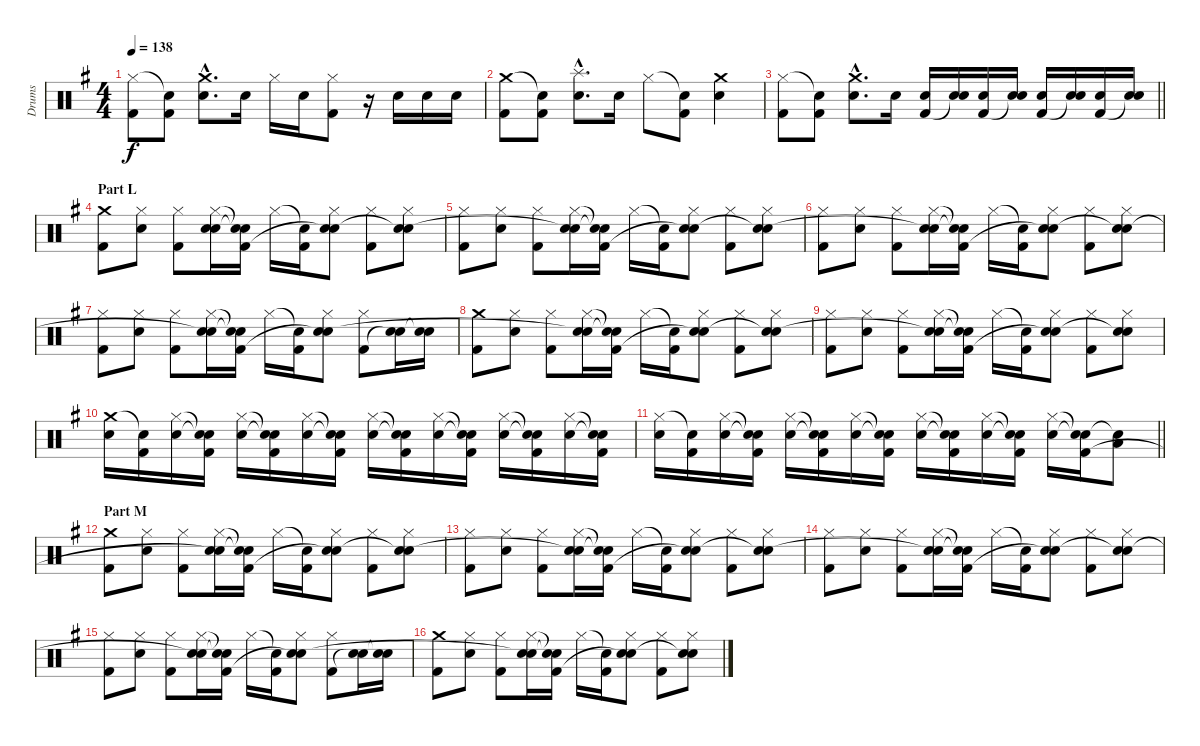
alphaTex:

\track ("Drums" "Drums") {instrument percussion}
\staff {score}
\articulation defaults
\ts (4 4)
\tempo 138
\clef neutral
\ks g
("Hi-Hat (closed)" "Kick (hit) 2").8{dy f} ("Snare (hit)"{t} "Kick (hit) 2").8 ("Crash medium (hit)"{hac} "Electric Snare (hit)"{hac}).8{d} "Electric Snare (hit)".16 "Hi-Hat (closed)".16 "Electric Snare (hit)".16 ("Hi-Hat (closed)" "Kick (hit) 2").8 r.16 "Electric Snare (hit)".16 "Electric Snare (hit)".16 "Electric Snare (hit)".16 |
("Crash medium (hit)" "Kick (hit) 2").8 ("Snare (hit)"{t} "Kick (hit) 2").8 ("Splash (hit)"{hac} "Electric Snare (hit)"{hac}).8{d} "Electric Snare (hit)".16 "Hi-Hat (closed)".8 ("Snare (hit)"{t} "Kick (hit) 2").8 ("Crash medium (hit)" "Electric Snare (hit)").4 |
\barLineRight lightlight
("Hi-Hat (closed)" "Kick (hit) 2").8 ("Snare (hit)"{t} "Kick (hit) 2").8 ("Crash medium (hit)"{hac} "Electric Snare (hit)"{hac}).8{d} "Electric Snare (hit)".16 ("Electric Snare (hit)" "Kick (hit) 2").16 ("Electric Snare (hit)" "Snare (hit)"{t}).16 ("Electric Snare (hit)" "Kick (hit) 2").16 ("Electric Snare (hit)" "Snare (hit)"{t}).16 ("Electric Snare (hit)" "Kick (hit) 2").16 ("Electric Snare (hit)" "Snare (hit)"{t}).16 ("Electric Snare (hit)" "Kick (hit) 2").16 ("Electric Snare (hit)" "Snare (hit)"{t}).16 |
\section ("" "Part L")
("Crash medium (hit)" "Kick (hit) 2").8 ("Hi-Hat (closed)" "Electric Snare (hit)").8 ("Hi-Hat (closed)" "Kick (hit) 2").8 ("Hi-Hat (closed)" "Electric Snare (hit)" "Snare (hit)").16 ("Snare (hit)"{t} "Snare (hit)"{t} "Kick (hit) 2").16 "Hi-Hat (closed)".16 ("Snare (hit)"{t} "Kick (hit) 2").16 ("Hi-Hat (closed)" "Electric Snare (hit)" "Snare (hit)"{t}).8 ("Hi-Hat (closed)" "Kick (hit) 2").8 ("Hi-Hat (closed)" "Electric Snare (hit)" "Snare (hit)"{t}).8 |
("Hi-Hat (closed)" "Kick (hit) 2").8 ("Hi-Hat (closed)" "Electric Snare (hit)").8 ("Hi-Hat (closed)" "Kick (hit) 2").8 ("Hi-Hat (closed)" "Electric Snare (hit)" "Snare (hit)"{t}).16 ("Snare (hit)"{t} "Snare (hit)"{t} "Kick (hit) 2").16 "Hi-Hat (closed)".16 ("Snare (hit)"{t} "Kick (hit) 2").16 ("Hi-Hat (closed)" "Electric Snare (hit)" "Snare (hit)"{t}).8 ("Hi-Hat (closed)" "Kick (hit) 2").8 ("Hi-Hat (closed)" "Electric Snare (hit)" "Snare (hit)"{t}).8 |
("Hi-Hat (closed)" "Kick (hit) 2").8 ("Hi-Hat (closed)" "Electric Snare (hit)").8 ("Hi-Hat (closed)" "Kick (hit) 2").8 ("Hi-Hat (closed)" "Electric Snare (hit)" "Snare (hit)"{t}).16 ("Snare (hit)"{t} "Snare (hit)"{t} "Kick (hit) 2").16 "Hi-Hat (closed)".16 ("Snare (hit)"{t} "Kick (hit) 2").16 ("Hi-Hat (closed)" "Electric Snare (hit)" "Snare (hit)"{t}).8 ("Hi-Hat (closed)" "Kick (hit) 2").8 ("Hi-Hat (closed)" "Electric Snare (hit)" "Snare (hit)"{t}).8 |
("Hi-Hat (closed)" "Kick (hit) 2").8 ("Hi-Hat (closed)" "Electric Snare (hit)").8 ("Hi-Hat (closed)" "Kick (hit) 2").8 ("Hi-Hat (closed)" "Electric Snare (hit)" "Snare (hit)"{t}).16 ("Snare (hit)"{t} "Snare (hit)"{t} "Kick (hit) 2").16 "Hi-Hat (closed)".16 ("Snare (hit)"{t} "Kick (hit) 2").16 ("Hi-Hat (closed)" "Electric Snare (hit)" "Snare (hit)"{t}).8 ("Hi-Hat (closed)" "Kick (hit) 2").8 ("Electric Snare (hit)" "Snare (hit)"{t}).16 ("Electric Snare (hit)" "Snare (hit)"{t}).16 |
("Crash medium (hit)" "Kick (hit) 2").8 ("Hi-Hat (closed)" "Electric Snare (hit)").8 ("Hi-Hat (closed)" "Kick (hit) 2").8 ("Hi-Hat (closed)" "Electric Snare (hit)" "Snare (hit)"{t}).16 ("Snare (hit)"{t} "Snare (hit)"{t} "Kick (hit) 2").16 "Hi-Hat (closed)".16 ("Snare (hit)"{t} "Kick (hit) 2").16 ("Hi-Hat (closed)" "Electric Snare (hit)" "Snare (hit)"{t}).8 ("Hi-Hat (closed)" "Kick (hit) 2").8 ("Hi-Hat (closed)" "Electric Snare (hit)" "Snare (hit)"{t}).8 |
("Hi-Hat (closed)" "Kick (hit) 2").8 ("Hi-Hat (closed)" "Electric Snare (hit)").8 ("Hi-Hat (closed)" "Kick (hit) 2").8 ("Hi-Hat (closed)" "Electric Snare (hit)" "Snare (hit)"{t}).16 ("Snare (hit)"{t} "Snare (hit)"{t} "Kick (hit) 2").16 "Hi-Hat (closed)".16 ("Snare (hit)"{t} "Kick (hit) 2").16 ("Hi-Hat (closed)" "Electric Snare (hit)" "Snare (hit)"{t}).8 ("Hi-Hat (closed)" "Kick (hit) 2").8 ("Hi-Hat (closed)" "Electric Snare (hit)" "Snare (hit)"{t}).8 |
("Crash medium (hit)" "Electric Snare (hit)").16 ("Snare (hit)"{t} "Kick (hit) 2").16 ("Hi-Hat (closed)" "Electric Snare (hit)").16 ("Snare (hit)"{t} "Snare (hit)"{t} "Kick (hit) 2").16 ("Hi-Hat (closed)" "Electric Snare (hit)").16 ("Snare (hit)"{t} "Snare (hit)"{t} "Kick (hit) 2").16 ("Hi-Hat (closed)" "Electric Snare (hit)").16 ("Snare (hit)"{t} "Snare (hit)"{t} "Kick (hit) 2").16 ("Hi-Hat (closed)" "Electric Snare (hit)").16 ("Snare (hit)"{t} "Snare (hit)"{t} "Kick (hit) 2").16 ("Hi-Hat (closed)" "Electric Snare (hit)").16 ("Snare (hit)"{t} "Snare (hit)"{t} "Kick (hit) 2").16 ("Hi-Hat (closed)" "Electric Snare (hit)").16 ("Snare (hit)"{t} "Snare (hit)"{t} "Kick (hit) 2").16 ("Hi-Hat (closed)" "Electric Snare (hit)").16 ("Snare (hit)"{t} "Snare (hit)"{t} "Kick (hit) 2").16 |
\barLineRight lightlight
("Hi-Hat (closed)" "Electric Snare (hit)").16 ("Snare (hit)"{t} "Kick (hit) 2").16 ("Hi-Hat (closed)" "Electric Snare (hit)").16 ("Snare (hit)"{t} "Snare (hit)"{t} "Kick (hit) 2").16 ("Hi-Hat (closed)" "Electric Snare (hit)").16 ("Snare (hit)"{t} "Snare (hit)"{t} "Kick (hit) 2").16 ("Hi-Hat (closed)" "Electric Snare (hit)").16 ("Snare (hit)"{t} "Snare (hit)"{t} "Kick (hit) 2").16 ("Hi-Hat (closed)" "Electric Snare (hit)").16 ("Snare (hit)"{t} "Snare (hit)"{t} "Kick (hit) 2").16 ("Hi-Hat (closed)" "Electric Snare (hit)").16 ("Snare (hit)"{t} "Snare (hit)"{t} "Kick (hit) 2").16 ("Hi-Hat (closed)" "Electric Snare (hit)").16 ("Snare (hit)"{t} "Snare (hit)"{t} "Kick (hit) 2").16 ("Low Floor Tom (hit)" "Snare (hit)"{t}).8 |
\section ("" "Part M")
("Crash medium (hit)" "Kick (hit) 2").8 ("Hi-Hat (closed)" "Electric Snare (hit)").8 ("Hi-Hat (closed)" "Kick (hit) 2").8 ("Hi-Hat (closed)" "Electric Snare (hit)" "Snare (hit)"{t}).16 ("Snare (hit)"{t} "Snare (hit)"{t} "Kick (hit) 2").16 "Hi-Hat (closed)".16 ("Snare (hit)"{t} "Kick (hit) 2").16 ("Hi-Hat (closed)" "Electric Snare (hit)" "Snare (hit)"{t}).8 ("Hi-Hat (closed)" "Kick (hit) 2").8 ("Hi-Hat (closed)" "Electric Snare (hit)" "Snare (hit)"{t}).8 |
("Hi-Hat (closed)" "Kick (hit) 2").8 ("Hi-Hat (closed)" "Electric Snare (hit)").8 ("Hi-Hat (closed)" "Kick (hit) 2").8 ("Hi-Hat (closed)" "Electric Snare (hit)" "Snare (hit)"{t}).16 ("Snare (hit)"{t} "Snare (hit)"{t} "Kick (hit) 2").16 "Hi-Hat (closed)".16 ("Snare (hit)"{t} "Kick (hit) 2").16 ("Hi-Hat (closed)" "Electric Snare (hit)" "Snare (hit)"{t}).8 ("Hi-Hat (closed)" "Kick (hit) 2").8 ("Hi-Hat (closed)" "Electric Snare (hit)" "Snare (hit)"{t}).8 |
("Hi-Hat (closed)" "Kick (hit) 2").8 ("Hi-Hat (closed)" "Electric Snare (hit)").8 ("Hi-Hat (closed)" "Kick (hit) 2").8 ("Hi-Hat (closed)" "Electric Snare (hit)" "Snare (hit)"{t}).16 ("Snare (hit)"{t} "Snare (hit)"{t} "Kick (hit) 2").16 "Hi-Hat (closed)".16 ("Snare (hit)"{t} "Kick (hit) 2").16 ("Hi-Hat (closed)" "Electric Snare (hit)" "Snare (hit)"{t}).8 ("Hi-Hat (closed)" "Kick (hit) 2").8 ("Hi-Hat (closed)" "Electric Snare (hit)" "Snare (hit)"{t}).8 |
("Hi-Hat (closed)" "Kick (hit) 2").8 ("Hi-Hat (closed)" "Electric Snare (hit)").8 ("Hi-Hat (closed)" "Kick (hit) 2").8 ("Hi-Hat (closed)" "Electric Snare (hit)" "Snare (hit)"{t}).16 ("Snare (hit)"{t} "Snare (hit)"{t} "Kick (hit) 2").16 "Hi-Hat (closed)".16 ("Snare (hit)"{t} "Kick (hit) 2").16 ("Hi-Hat (closed)" "Electric Snare (hit)" "Snare (hit)"{t}).8 ("Hi-Hat (closed)" "Kick (hit) 2").8 ("Electric Snare (hit)" "Snare (hit)"{t}).16 ("Electric Snare (hit)" "Snare (hit)"{t}).16 |
("Crash medium (hit)" "Kick (hit) 2").8 ("Hi-Hat (closed)" "Electric Snare (hit)").8 ("Hi-Hat (closed)" "Kick (hit) 2").8 ("Hi-Hat (closed)" "Electric Snare (hit)" "Snare (hit)"{t}).16 ("Snare (hit)"{t} "Snare (hit)"{t} "Kick (hit) 2").16 "Hi-Hat (closed)".16 ("Snare (hit)"{t} "Kick (hit) 2").16 ("Hi-Hat (closed)" "Electric Snare (hit)" "Snare (hit)"{t}).8 ("Hi-Hat (closed)" "Kick (hit) 2").8 ("Hi-Hat (closed)" "Electric Snare (hit)" "Snare (hit)"{t}).8
